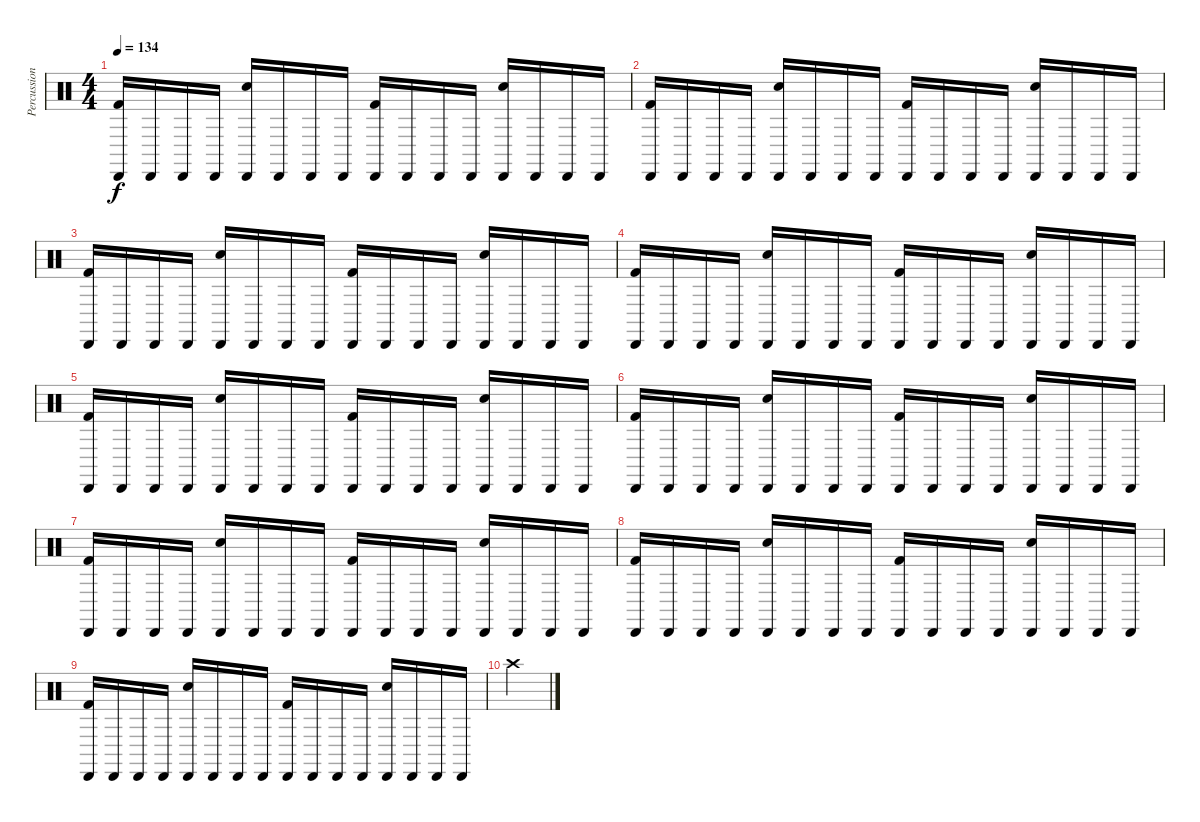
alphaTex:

\track ("Percussion" "Percussion") {instrument percussion}
\staff {score}
\articulation defaults
\ts (4 4)
\tempo 134
\clef neutral
\ks c
("Cabasa (hit)" "Kick (hit) 2").16{dy f} "Cabasa (hit)".16 "Cabasa (hit)".16 "Cabasa (hit)".16 ("Cabasa (hit)" "Snare (hit) 2").16 "Cabasa (hit)".16 "Cabasa (hit)".16 "Cabasa (hit)".16 ("Cabasa (hit)" "Kick (hit) 2").16 "Cabasa (hit)".16 "Cabasa (hit)".16 "Cabasa (hit)".16 ("Cabasa (hit)" "Snare (hit) 2").16 "Cabasa (hit)".16 "Cabasa (hit)".16 "Cabasa (hit)".16 |
("Cabasa (hit)" "Kick (hit) 2").16 "Cabasa (hit)".16 "Cabasa (hit)".16 "Cabasa (hit)".16 ("Cabasa (hit)" "Snare (hit) 2").16 "Cabasa (hit)".16 "Cabasa (hit)".16 "Cabasa (hit)".16 ("Cabasa (hit)" "Kick (hit) 2").16 "Cabasa (hit)".16 "Cabasa (hit)".16 "Cabasa (hit)".16 ("Cabasa (hit)" "Snare (hit) 2").16 "Cabasa (hit)".16 "Cabasa (hit)".16 "Cabasa (hit)".16 |
("Cabasa (hit)" "Kick (hit) 2").16 "Cabasa (hit)".16 "Cabasa (hit)".16 "Cabasa (hit)".16 ("Cabasa (hit)" "Snare (hit) 2").16 "Cabasa (hit)".16 "Cabasa (hit)".16 "Cabasa (hit)".16 ("Cabasa (hit)" "Kick (hit) 2").16 "Cabasa (hit)".16 "Cabasa (hit)".16 "Cabasa (hit)".16 ("Cabasa (hit)" "Snare (hit) 2").16 "Cabasa (hit)".16 "Cabasa (hit)".16 "Cabasa (hit)".16 |
("Cabasa (hit)" "Kick (hit) 2").16 "Cabasa (hit)".16 "Cabasa (hit)".16 "Cabasa (hit)".16 ("Cabasa (hit)" "Snare (hit) 2").16 "Cabasa (hit)".16 "Cabasa (hit)".16 "Cabasa (hit)".16 ("Cabasa (hit)" "Kick (hit) 2").16 "Cabasa (hit)".16 "Cabasa (hit)".16 "Cabasa (hit)".16 ("Cabasa (hit)" "Snare (hit) 2").16 "Cabasa (hit)".16 "Cabasa (hit)".16 "Cabasa (hit)".16 |
("Cabasa (hit)" "Kick (hit) 2").16 "Cabasa (hit)".16 "Cabasa (hit)".16 "Cabasa (hit)".16 ("Cabasa (hit)" "Snare (hit) 2").16 "Cabasa (hit)".16 "Cabasa (hit)".16 "Cabasa (hit)".16 ("Cabasa (hit)" "Kick (hit) 2").16 "Cabasa (hit)".16 "Cabasa (hit)".16 "Cabasa (hit)".16 ("Cabasa (hit)" "Snare (hit) 2").16 "Cabasa (hit)".16 "Cabasa (hit)".16 "Cabasa (hit)".16 |
("Cabasa (hit)" "Kick (hit) 2").16 "Cabasa (hit)".16 "Cabasa (hit)".16 "Cabasa (hit)".16 ("Cabasa (hit)" "Snare (hit) 2").16 "Cabasa (hit)".16 "Cabasa (hit)".16 "Cabasa (hit)".16 ("Cabasa (hit)" "Kick (hit) 2").16 "Cabasa (hit)".16 "Cabasa (hit)".16 "Cabasa (hit)".16 ("Cabasa (hit)" "Snare (hit) 2").16 "Cabasa (hit)".16 "Cabasa (hit)".16 "Cabasa (hit)".16 |
("Cabasa (hit)" "Kick (hit) 2").16 "Cabasa (hit)".16 "Cabasa (hit)".16 "Cabasa (hit)".16 ("Cabasa (hit)" "Snare (hit) 2").16 "Cabasa (hit)".16 "Cabasa (hit)".16 "Cabasa (hit)".16 ("Cabasa (hit)" "Kick (hit) 2").16 "Cabasa (hit)".16 "Cabasa (hit)".16 "Cabasa (hit)".16 ("Cabasa (hit)" "Snare (hit) 2").16 "Cabasa (hit)".16 "Cabasa (hit)".16 "Cabasa (hit)".16 |
("Cabasa (hit)" "Kick (hit) 2").16 "Cabasa (hit)".16 "Cabasa (hit)".16 "Cabasa (hit)".16 ("Cabasa (hit)" "Snare (hit) 2").16 "Cabasa (hit)".16 "Cabasa (hit)".16 "Cabasa (hit)".16 ("Cabasa (hit)" "Kick (hit) 2").16 "Cabasa (hit)".16 "Cabasa (hit)".16 "Cabasa (hit)".16 ("Cabasa (hit)" "Snare (hit) 2").16 "Cabasa (hit)".16 "Cabasa (hit)".16 "Cabasa (hit)".16 |
("Cabasa (hit)" "Kick (hit) 2").16 "Cabasa (hit)".16 "Cabasa (hit)".16 "Cabasa (hit)".16 ("Cabasa (hit)" "Snare (hit) 2").16 "Cabasa (hit)".16 "Cabasa (hit)".16 "Cabasa (hit)".16 ("Cabasa (hit)" "Kick (hit) 2").16 "Cabasa (hit)".16 "Cabasa (hit)".16 "Cabasa (hit)".16 ("Cabasa (hit)" "Snare (hit) 2").16 "Cabasa (hit)".16 "Cabasa (hit)".16 "Cabasa (hit)".16 |
"Crash high (hit)".4
